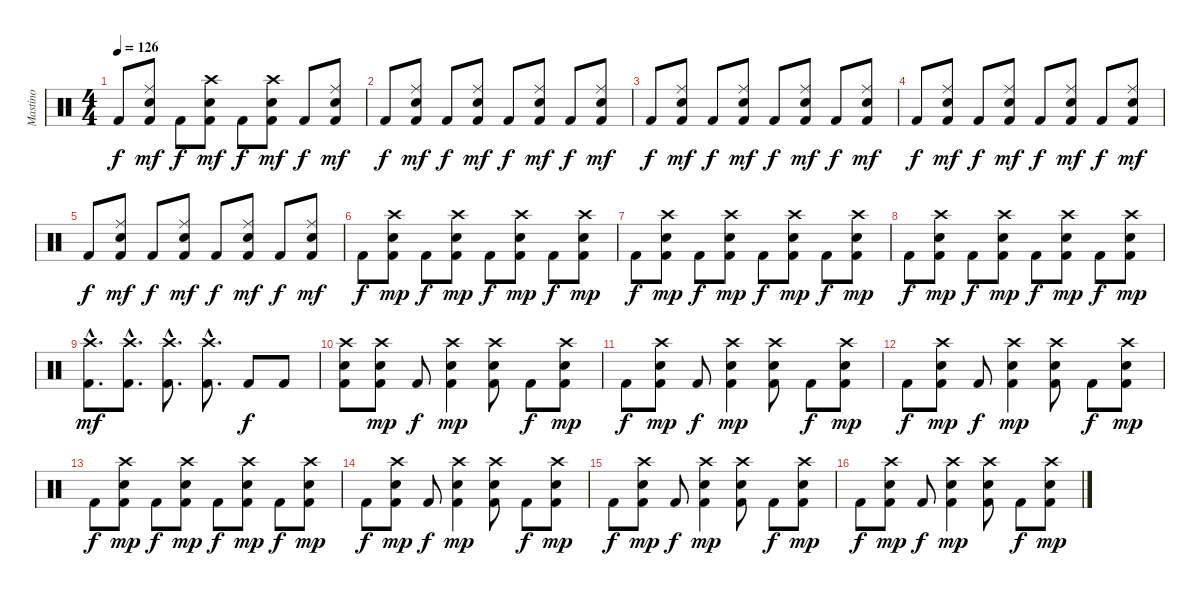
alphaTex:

\track ("Mastino" "Mastino") {instrument percussion}
\staff {score}
\articulation defaults
\ts (4 4)
\tempo 126
\clef neutral
\ks c "Kick (hit) 2".8{dy f}
("Ride (middle)" "Electric Snare (hit)" "Kick (hit) 2").8{dy mf} "Kick (hit) 2".8{dy f} ("Crash high (hit)" "Electric Snare (hit)" "Kick (hit) 2").8{dy mf} "Kick (hit) 2".8{dy f} ("Crash high (hit)" "Electric Snare (hit)" "Kick (hit) 2").8{dy mf} "Kick (hit) 2".8{dy f} ("Ride (middle)" "Electric Snare (hit)" "Kick (hit) 2").8{dy mf} |
"Kick (hit) 2".8{dy f} ("Ride (middle)" "Electric Snare (hit)" "Kick (hit) 2").8{dy mf} "Kick (hit) 2".8{dy f} ("Ride (middle)" "Electric Snare (hit)" "Kick (hit) 2").8{dy mf} "Kick (hit) 2".8{dy f} ("Ride (middle)" "Electric Snare (hit)" "Kick (hit) 2").8{dy mf} "Kick (hit) 2".8{dy f} ("Ride (middle)" "Electric Snare (hit)" "Kick (hit) 2").8{dy mf} |
"Kick (hit) 2".8{dy f} ("Ride (middle)" "Electric Snare (hit)" "Kick (hit) 2").8{dy mf} "Kick (hit) 2".8{dy f} ("Ride (middle)" "Electric Snare (hit)" "Kick (hit) 2").8{dy mf} "Kick (hit) 2".8{dy f} ("Ride (middle)" "Electric Snare (hit)" "Kick (hit) 2").8{dy mf} "Kick (hit) 2".8{dy f} ("Ride (middle)" "Electric Snare (hit)" "Kick (hit) 2").8{dy mf} |
"Kick (hit) 2".8{dy f} ("Ride (middle)" "Electric Snare (hit)" "Kick (hit) 2").8{dy mf} "Kick (hit) 2".8{dy f} ("Ride (middle)" "Electric Snare (hit)" "Kick (hit) 2").8{dy mf} "Kick (hit) 2".8{dy f} ("Ride (middle)" "Electric Snare (hit)" "Kick (hit) 2").8{dy mf} "Kick (hit) 2".8{dy f} ("Ride (middle)" "Electric Snare (hit)" "Kick (hit) 2").8{dy mf} |
"Kick (hit) 2".8{dy f} ("Ride (middle)" "Electric Snare (hit)" "Kick (hit) 2").8{dy mf} "Kick (hit) 2".8{dy f} ("Ride (middle)" "Electric Snare (hit)" "Kick (hit) 2").8{dy mf} "Kick (hit) 2".8{dy f} ("Ride (middle)" "Electric Snare (hit)" "Kick (hit) 2").8{dy mf} "Kick (hit) 2".8{dy f} ("Ride (middle)" "Electric Snare (hit)" "Kick (hit) 2").8{dy mf} |
"Kick (hit) 2".8{dy f} ("Crash high (hit)" "Electric Snare (hit)" "Kick (hit) 2").8{dy mp} "Kick (hit) 2".8{dy f} ("Crash high (hit)" "Electric Snare (hit)" "Kick (hit) 2").8{dy mp} "Kick (hit) 2".8{dy f} ("Crash high (hit)" "Electric Snare (hit)" "Kick (hit) 2").8{dy mp} "Kick (hit) 2".8{dy f} ("Crash high (hit)" "Electric Snare (hit)" "Kick (hit) 2").8{dy mp} |
"Kick (hit) 2".8{dy f} ("Crash high (hit)" "Electric Snare (hit)" "Kick (hit) 2").8{dy mp} "Kick (hit) 2".8{dy f} ("Crash high (hit)" "Electric Snare (hit)" "Kick (hit) 2").8{dy mp} "Kick (hit) 2".8{dy f} ("Crash high (hit)" "Electric Snare (hit)" "Kick (hit) 2").8{dy mp} "Kick (hit) 2".8{dy f} ("Crash high (hit)" "Electric Snare (hit)" "Kick (hit) 2").8{dy mp} |
"Kick (hit) 2".8{dy f} ("Crash high (hit)" "Electric Snare (hit)" "Kick (hit) 2").8{dy mp} "Kick (hit) 2".8{dy f} ("Crash high (hit)" "Electric Snare (hit)" "Kick (hit) 2").8{dy mp} "Kick (hit) 2".8{dy f} ("Crash high (hit)" "Electric Snare (hit)" "Kick (hit) 2").8{dy mp} "Kick (hit) 2".8{dy f} ("Crash high (hit)" "Electric Snare (hit)" "Kick (hit) 2").8{dy mp} |
("Crash high (hit)"{hac} "Kick (hit) 2"{hac}).8{d dy mf} ("Crash high (hit)"{hac} "Kick (hit) 2"{hac}).8{d} ("Crash high (hit)"{hac} "Kick (hit) 2"{hac}).8{d} ("Crash high (hit)"{hac} "Kick (hit) 2"{hac}).8{d} "Kick (hit) 2".8{dy f} "Kick (hit) 2".8 |
("Crash high (hit)" "Electric Snare (hit)" "Kick (hit) 2").8 ("Crash high (hit)" "Electric Snare (hit)" "Kick (hit) 2").8{dy mp} "Kick (hit) 2".8{dy f} ("Crash high (hit)" "Electric Snare (hit)" "Kick (hit) 2").4{dy mp} ("Crash high (hit)" "Electric Snare (hit)" "Kick (hit) 2").8 "Kick (hit) 2".8{dy f} ("Crash high (hit)" "Electric Snare (hit)" "Kick (hit) 2").8{dy mp} |
"Kick (hit) 2".8{dy f} ("Crash high (hit)" "Electric Snare (hit)" "Kick (hit) 2").8{dy mp} "Kick (hit) 2".8{dy f} ("Crash high (hit)" "Electric Snare (hit)" "Kick (hit) 2").4{dy mp} ("Crash high (hit)" "Electric Snare (hit)" "Kick (hit) 2").8 "Kick (hit) 2".8{dy f} ("Crash high (hit)" "Electric Snare (hit)" "Kick (hit) 2").8{dy mp} |
"Kick (hit) 2".8{dy f} ("Crash high (hit)" "Electric Snare (hit)" "Kick (hit) 2").8{dy mp} "Kick (hit) 2".8{dy f} ("Crash high (hit)" "Electric Snare (hit)" "Kick (hit) 2").4{dy mp} ("Crash high (hit)" "Electric Snare (hit)" "Kick (hit) 2").8 "Kick (hit) 2".8{dy f} ("Crash high (hit)" "Electric Snare (hit)" "Kick (hit) 2").8{dy mp} |
"Kick (hit) 2".8{dy f} ("Crash high (hit)" "Electric Snare (hit)" "Kick (hit) 2").8{dy mp} "Kick (hit) 2".8{dy f} ("Crash high (hit)" "Electric Snare (hit)" "Kick (hit) 2").8{dy mp} "Kick (hit) 2".8{dy f} ("Crash high (hit)" "Electric Snare (hit)" "Kick (hit) 2").8{dy mp} "Kick (hit) 2".8{dy f} ("Crash high (hit)" "Electric Snare (hit)" "Kick (hit) 2").8{dy mp} |
"Kick (hit) 2".8{dy f} ("Crash high (hit)" "Electric Snare (hit)" "Kick (hit) 2").8{dy mp} "Kick (hit) 2".8{dy f} ("Crash high (hit)" "Electric Snare (hit)" "Kick (hit) 2").4{dy mp} ("Crash high (hit)" "Electric Snare (hit)" "Kick (hit) 2").8 "Kick (hit) 2".8{dy f} ("Crash high (hit)" "Electric Snare (hit)" "Kick (hit) 2").8{dy mp} |
"Kick (hit) 2".8{dy f} ("Crash high (hit)" "Electric Snare (hit)" "Kick (hit) 2").8{dy mp} "Kick (hit) 2".8{dy f} ("Crash high (hit)" "Electric Snare (hit)" "Kick (hit) 2").4{dy mp} ("Crash high (hit)" "Electric Snare (hit)" "Kick (hit) 2").8 "Kick (hit) 2".8{dy f} ("Crash high (hit)" "Electric Snare (hit)" "Kick (hit) 2").8{dy mp} |
"Kick (hit) 2".8{dy f} ("Crash high (hit)" "Electric Snare (hit)" "Kick (hit) 2").8{dy mp} "Kick (hit) 2".8{dy f} ("Crash high (hit)" "Electric Snare (hit)" "Kick (hit) 2").4{dy mp} ("Crash high (hit)" "Electric Snare (hit)" "Kick (hit) 2").8 "Kick (hit) 2".8{dy f} ("Crash high (hit)" "Electric Snare (hit)" "Kick (hit) 2").8{dy mp}
